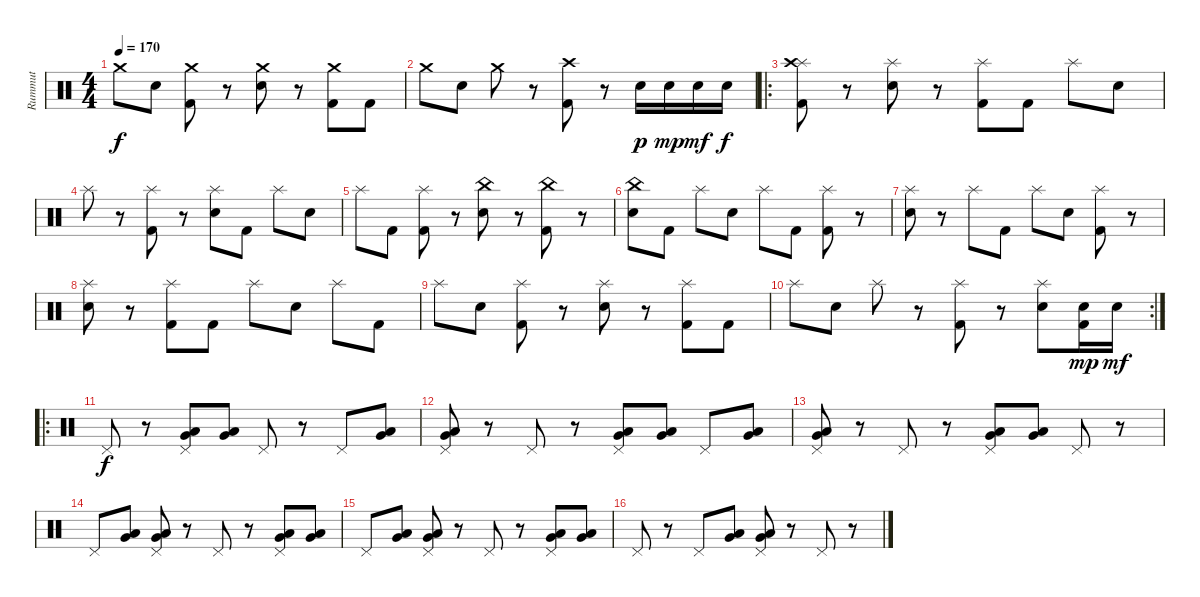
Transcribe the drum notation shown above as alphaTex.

\track ("Rummut" "Rummut") {instrument percussion}
\staff {score}
\articulation defaults
\ts (4 4)
\tempo 170
\clef neutral
\ks c "Crash medium (hit)".8{dy f} "Electric Snare (hit)".8
("Crash medium (hit)" "Kick (hit) 2").8 r.8 ("Crash medium (hit)" "Electric Snare (hit)").8 r.8 ("Crash medium (hit)" "Kick (hit) 2").8 "Kick (hit) 2".8 |
"Crash medium (hit)".8 "Electric Snare (hit)".8 "Crash medium (hit)".8 r.8 ("Crash high (hit)" "Kick (hit) 2").8 r.8 "Electric Snare (hit)".16{dy p} "Electric Snare (hit)".16{dy mp} "Electric Snare (hit)".16{dy mf} "Electric Snare (hit)".16{dy f} |
\ro
("Splash (hit)" "Crash high (hit)" "Kick (hit) 2").8 r.8 ("Splash (hit)" "Electric Snare (hit)").8 r.8 ("Splash (hit)" "Kick (hit) 2").8 "Kick (hit) 2".8 "Splash (hit)".8 "Electric Snare (hit)".8 |
"Splash (hit)".8 r.8 ("Splash (hit)" "Kick (hit) 2").8 r.8 ("Splash (hit)" "Electric Snare (hit)").8 "Kick (hit) 2".8 "Splash (hit)".8 "Electric Snare (hit)".8 |
"Splash (hit)".8 "Kick (hit) 2".8 ("Splash (hit)" "Kick (hit) 2").8 r.8 ("China (hit)" "Electric Snare (hit)").8 r.8 ("China (hit)" "Kick (hit) 2").8 r.8 |
("China (hit)" "Electric Snare (hit)").8 "Kick (hit) 2".8 "Splash (hit)".8 "Electric Snare (hit)".8 "Splash (hit)".8 "Kick (hit) 2".8 ("Splash (hit)" "Kick (hit) 2").8 r.8 |
("Splash (hit)" "Electric Snare (hit)").8 r.8 "Splash (hit)".8 "Kick (hit) 2".8 "Splash (hit)".8 "Electric Snare (hit)".8 ("Splash (hit)" "Kick (hit) 2").8 r.8 |
("Splash (hit)" "Electric Snare (hit)").8 r.8 ("Splash (hit)" "Kick (hit) 2").8 "Kick (hit) 2".8 "Splash (hit)".8 "Electric Snare (hit)".8 "Splash (hit)".8 "Kick (hit) 2".8 |
"Splash (hit)".8 "Electric Snare (hit)".8 ("Splash (hit)" "Kick (hit) 2").8 r.8 ("Splash (hit)" "Electric Snare (hit)").8 r.8 ("Splash (hit)" "Kick (hit) 2").8 "Kick (hit) 2".8 |
\rc 2 "Splash (hit)".8 "Electric Snare (hit)".8 "Splash (hit)".8
r.8 ("Splash (hit)" "Kick (hit) 2").8 r.8 ("Splash (hit)" "Electric Snare (hit)").8 ("Electric Snare (hit)" "Kick (hit) 2").16{dy mp} "Electric Snare (hit)".16{dy mf} |
\ro "Pedal Hi-Hat (hit)".8{dy f}
r.8 ("Pedal Hi-Hat (hit)" "Very Low Tom (hit)" "Low Floor Tom (hit)").8 ("Very Low Tom (hit)" "Low Floor Tom (hit)").8 "Pedal Hi-Hat (hit)".8 r.8 "Pedal Hi-Hat (hit)".8 ("Very Low Tom (hit)" "Low Floor Tom (hit)").8 |
("Pedal Hi-Hat (hit)" "Very Low Tom (hit)" "Low Floor Tom (hit)").8 r.8 "Pedal Hi-Hat (hit)".8 r.8 ("Pedal Hi-Hat (hit)" "Very Low Tom (hit)" "Low Floor Tom (hit)").8 ("Very Low Tom (hit)" "Low Floor Tom (hit)").8 "Pedal Hi-Hat (hit)".8 ("Very Low Tom (hit)" "Low Floor Tom (hit)").8 |
("Pedal Hi-Hat (hit)" "Very Low Tom (hit)" "Low Floor Tom (hit)").8 r.8 "Pedal Hi-Hat (hit)".8 r.8 ("Pedal Hi-Hat (hit)" "Very Low Tom (hit)" "Low Floor Tom (hit)").8 ("Very Low Tom (hit)" "Low Floor Tom (hit)").8 "Pedal Hi-Hat (hit)".8 r.8 |
"Pedal Hi-Hat (hit)".8 ("Very Low Tom (hit)" "Low Floor Tom (hit)").8 ("Pedal Hi-Hat (hit)" "Very Low Tom (hit)" "Low Floor Tom (hit)").8 r.8 "Pedal Hi-Hat (hit)".8 r.8 ("Pedal Hi-Hat (hit)" "Very Low Tom (hit)" "Low Floor Tom (hit)").8 ("Very Low Tom (hit)" "Low Floor Tom (hit)").8 |
"Pedal Hi-Hat (hit)".8 ("Very Low Tom (hit)" "Low Floor Tom (hit)").8 ("Pedal Hi-Hat (hit)" "Very Low Tom (hit)" "Low Floor Tom (hit)").8 r.8 "Pedal Hi-Hat (hit)".8 r.8 ("Pedal Hi-Hat (hit)" "Very Low Tom (hit)" "Low Floor Tom (hit)").8 ("Very Low Tom (hit)" "Low Floor Tom (hit)").8 |
"Pedal Hi-Hat (hit)".8 r.8 "Pedal Hi-Hat (hit)".8 ("Very Low Tom (hit)" "Low Floor Tom (hit)").8 ("Pedal Hi-Hat (hit)" "Very Low Tom (hit)" "Low Floor Tom (hit)").8 r.8 "Pedal Hi-Hat (hit)".8 r.8
